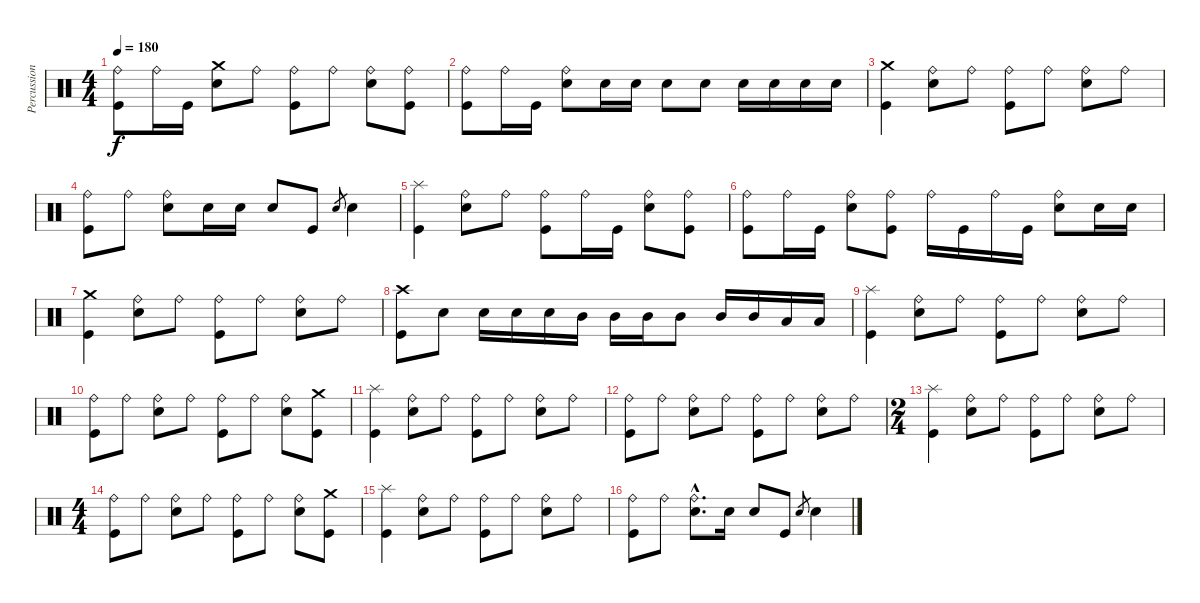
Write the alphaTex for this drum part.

\track ("Percussions" "Percussion") {instrument percussion}
\staff {score}
\articulation defaults
\ts (4 4)
\tempo 180
\clef neutral
\ks c
("Kick (hit)" "Ride (bell)").8{dy f} "Ride (bell)".16 "Kick (hit)".16 ("Electric Snare (hit)" "Crash medium (hit)").8 "Ride (bell)".8 ("Kick (hit)" "Ride (bell)").8 "Ride (bell)".8 ("Electric Snare (hit)" "Ride (bell)").8 ("Kick (hit)" "Ride (bell)").8 |
("Kick (hit)" "Ride (bell)").8 "Ride (bell)".16 "Kick (hit)".16 ("Electric Snare (hit)" "Ride (bell)").8 "Electric Snare (hit)".16 "Electric Snare (hit)".16 "Electric Snare (hit)".8 "Electric Snare (hit)".8 "Electric Snare (hit)".16 "Electric Snare (hit)".16 "Electric Snare (hit)".16 "Electric Snare (hit)".16 |
("Kick (hit)" "Crash medium (hit)").4 ("Electric Snare (hit)" "Ride (bell)").8 "Ride (bell)".8 ("Kick (hit)" "Ride (bell)").8 "Ride (bell)".8 ("Electric Snare (hit)" "Ride (bell)").8 "Ride (bell)".8 |
("Kick (hit)" "Ride (bell)").8 "Ride (bell)".8 ("Electric Snare (hit)" "Ride (bell)").8 "Electric Snare (hit)".16 "Electric Snare (hit)".16 "Electric Snare (hit)".8 "Kick (hit)".8 "Electric Snare (hit)".8{gr} "Electric Snare (hit)".4 |
("Kick (hit)" "Splash (hit)").4 ("Electric Snare (hit)" "Ride (bell)").8 "Ride (bell)".8 ("Kick (hit)" "Ride (bell)").8 "Ride (bell)".16 "Kick (hit)".16 ("Electric Snare (hit)" "Ride (bell)").8 ("Kick (hit)" "Ride (bell)").8 |
("Kick (hit)" "Ride (bell)").8 "Ride (bell)".16 "Kick (hit)".16 ("Electric Snare (hit)" "Ride (bell)").8 ("Kick (hit)" "Ride (bell)").8 "Ride (bell)".16 "Kick (hit)".16 "Ride (bell)".16 "Kick (hit)".16 ("Electric Snare (hit)" "Ride (bell)").8 "Electric Snare (hit)".16 "Electric Snare (hit)".16 |
("Kick (hit)" "Crash medium (hit)").4 ("Electric Snare (hit)" "Ride (bell)").8 "Ride (bell)".8 ("Kick (hit)" "Ride (bell)").8 "Ride (bell)".8 ("Electric Snare (hit)" "Ride (bell)").8 "Ride (bell)".8 |
("Kick (hit)" "Crash high (hit)").8 "Electric Snare (hit)".8 "Electric Snare (hit)".16 "Electric Snare (hit)".16 "Electric Snare (hit)".16 "Mid Tom (hit)".16 "Mid Tom (hit)".16 "Mid Tom (hit)".16 "Mid Tom (hit)".8 "Mid Tom (hit)".16 "Mid Tom (hit)".16 "Low Tom (hit)".16 "Low Tom (hit)".16 |
("Kick (hit)" "Splash (hit)").4 ("Electric Snare (hit)" "Ride (bell)").8 "Ride (bell)".8 ("Kick (hit)" "Ride (bell)").8 "Ride (bell)".8 ("Electric Snare (hit)" "Ride (bell)").8 "Ride (bell)".8 |
("Kick (hit)" "Ride (bell)").8 "Ride (bell)".8 ("Electric Snare (hit)" "Ride (bell)").8 "Ride (bell)".8 ("Kick (hit)" "Ride (bell)").8 "Ride (bell)".8 ("Electric Snare (hit)" "Ride (bell)").8 ("Kick (hit)" "Crash medium (hit)").8 |
("Kick (hit)" "Splash (hit)").4 ("Electric Snare (hit)" "Ride (bell)").8 "Ride (bell)".8 ("Kick (hit)" "Ride (bell)").8 "Ride (bell)".8 ("Electric Snare (hit)" "Ride (bell)").8 "Ride (bell)".8 |
("Kick (hit)" "Ride (bell)").8 "Ride (bell)".8 ("Electric Snare (hit)" "Ride (bell)").8 "Ride (bell)".8 ("Kick (hit)" "Ride (bell)").8 "Ride (bell)".8 ("Electric Snare (hit)" "Ride (bell)").8 "Ride (bell)".8 |
\ts (2 4)
("Kick (hit)" "Splash (hit)").4 ("Electric Snare (hit)" "Ride (bell)").8 "Ride (bell)".8 ("Kick (hit)" "Ride (bell)").8 "Ride (bell)".8 ("Electric Snare (hit)" "Ride (bell)").8 "Ride (bell)".8 |
\ts (4 4)
("Kick (hit)" "Ride (bell)").8 "Ride (bell)".8 ("Electric Snare (hit)" "Ride (bell)").8 "Ride (bell)".8 ("Kick (hit)" "Ride (bell)").8 "Ride (bell)".8 ("Electric Snare (hit)" "Ride (bell)").8 ("Kick (hit)" "Crash medium (hit)").8 |
("Kick (hit)" "Splash (hit)").4 ("Electric Snare (hit)" "Ride (bell)").8 "Ride (bell)".8 ("Kick (hit)" "Ride (bell)").8 "Ride (bell)".8 ("Electric Snare (hit)" "Ride (bell)").8 "Ride (bell)".8 |
("Kick (hit)" "Ride (bell)").8 "Ride (bell)".8 ("Electric Snare (hit)"{hac} "Ride (bell)"{hac}).8{d} "Electric Snare (hit)".16 "Electric Snare (hit)".8 "Kick (hit)".8 "Electric Snare (hit)".8{gr} "Electric Snare (hit)".4
